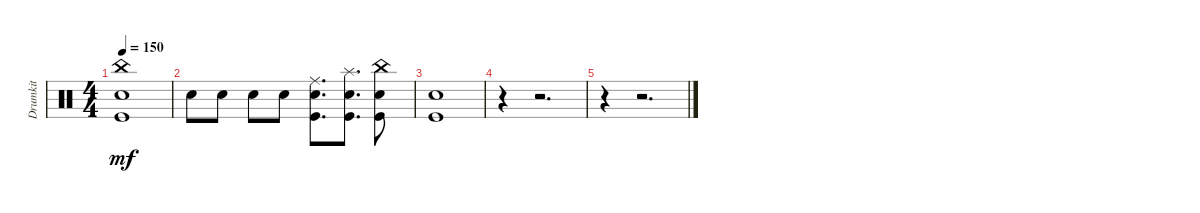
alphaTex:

\track ("Drumkit" "Drumkit") {instrument percussion}
\staff {score}
\articulation defaults
\ts (4 4)
\tempo 150
\clef neutral
\ks c
("China (hit)" "Snare (hit) 2" "Kick (hit)").1{dy mf} |
"Snare (hit) 2".8 "Snare (hit) 2".8 "Snare (hit) 2".8 "Snare (hit) 2".8 ("Snare (hit) 2" "Kick (hit)" "Ride (middle)").8{d} ("Snare (hit) 2" "Kick (hit)" "Splash (hit)").8{d} ("Snare (hit) 2" "Kick (hit)" "China (hit)").8 |
("Snare (hit) 2" "Kick (hit)").1 |
r.4 r.2{d} |
r.4 r.2{d}
